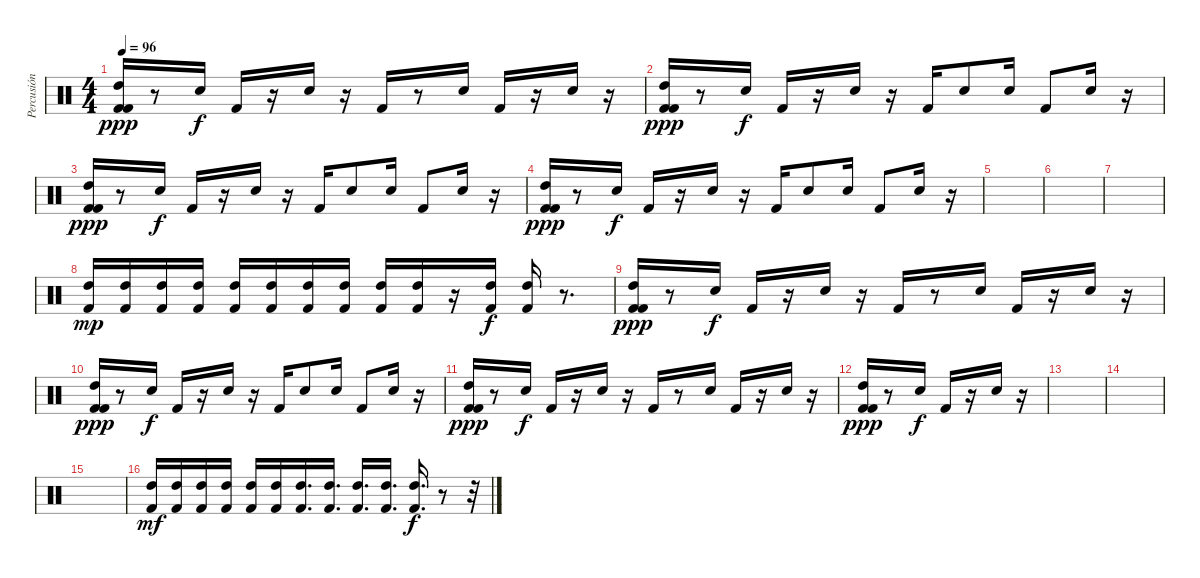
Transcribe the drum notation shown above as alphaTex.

\track ("Percusión" "Percusión") {instrument percussion}
\staff {score}
\articulation defaults
\ts (4 4)
\tempo 96
\clef neutral
\ks c
("Kick (hit) 2" "High Tom (hit)" "Kick (hit) 2").16{dy ppp} r.8 "Snare (hit) 2".16{dy f} "Kick (hit) 2".16 r.16 "Snare (hit) 2".16 r.16 "Kick (hit) 2".16 r.8 "Snare (hit) 2".16 "Kick (hit) 2".16 r.16 "Snare (hit) 2".16 r.16 |
("Kick (hit) 2" "High Tom (hit)" "Kick (hit) 2").16{dy ppp} r.8 "Snare (hit) 2".16{dy f} "Kick (hit) 2".16 r.16 "Snare (hit) 2".16 r.16 "Kick (hit) 2".16 "Snare (hit) 2".8 "Snare (hit) 2".16 "Kick (hit) 2".8 "Snare (hit) 2".16 r.16 |
("Kick (hit) 2" "High Tom (hit)" "Kick (hit) 2").16{dy ppp} r.8 "Snare (hit) 2".16{dy f} "Kick (hit) 2".16 r.16 "Snare (hit) 2".16 r.16 "Kick (hit) 2".16 "Snare (hit) 2".8 "Snare (hit) 2".16 "Kick (hit) 2".8 "Snare (hit) 2".16 r.16 |
("Kick (hit) 2" "High Tom (hit)" "Kick (hit) 2").16{dy ppp} r.8 "Snare (hit) 2".16{dy f} "Kick (hit) 2".16 r.16 "Snare (hit) 2".16 r.16 "Kick (hit) 2".16 "Snare (hit) 2".8 "Snare (hit) 2".16 "Kick (hit) 2".8 "Snare (hit) 2".16 r.16 |
|
|
|
("High Tom (hit)" "Kick (hit) 2").16{dy mp} ("High Tom (hit)" "Kick (hit) 2").16 ("High Tom (hit)" "Kick (hit) 2").16 ("High Tom (hit)" "Kick (hit) 2").16 ("High Tom (hit)" "Kick (hit) 2").16 ("High Tom (hit)" "Kick (hit) 2").16 ("High Tom (hit)" "Kick (hit) 2").16 ("High Tom (hit)" "Kick (hit) 2").16 ("High Tom (hit)" "Kick (hit) 2").16 ("High Tom (hit)" "Kick (hit) 2").16 r.16 ("High Tom (hit)" "Kick (hit) 2").16{dy f} ("High Tom (hit)" "Kick (hit) 2").16 r.8{d} |
("Kick (hit) 2" "High Tom (hit)" "Kick (hit) 2").16{dy ppp} r.8 "Snare (hit) 2".16{dy f} "Kick (hit) 2".16 r.16 "Snare (hit) 2".16 r.16 "Kick (hit) 2".16 r.8 "Snare (hit) 2".16 "Kick (hit) 2".16 r.16 "Snare (hit) 2".16 r.16 |
("Kick (hit) 2" "High Tom (hit)" "Kick (hit) 2").16{dy ppp} r.8 "Snare (hit) 2".16{dy f} "Kick (hit) 2".16 r.16 "Snare (hit) 2".16 r.16 "Kick (hit) 2".16 "Snare (hit) 2".8 "Snare (hit) 2".16 "Kick (hit) 2".8 "Snare (hit) 2".16 r.16 |
("Kick (hit) 2" "High Tom (hit)" "Kick (hit) 2").16{dy ppp} r.8 "Snare (hit) 2".16{dy f} "Kick (hit) 2".16 r.16 "Snare (hit) 2".16 r.16 "Kick (hit) 2".16 r.8 "Snare (hit) 2".16 "Kick (hit) 2".16 r.16 "Snare (hit) 2".16 r.16 |
("Kick (hit) 2" "High Tom (hit)" "Kick (hit) 2").16{dy ppp} r.8 "Snare (hit) 2".16{dy f} "Kick (hit) 2".16 r.16 "Snare (hit) 2".16 r.16 |
|
|
|
("High Tom (hit)" "Kick (hit) 2").16{dy mf} ("High Tom (hit)" "Kick (hit) 2").16 ("High Tom (hit)" "Kick (hit) 2").16 ("High Tom (hit)" "Kick (hit) 2").16 ("High Tom (hit)" "Kick (hit) 2").16 ("High Tom (hit)" "Kick (hit) 2").16 ("High Tom (hit)" "Kick (hit) 2").16{d} ("High Tom (hit)" "Kick (hit) 2").16{d} ("High Tom (hit)" "Kick (hit) 2").16{d} ("High Tom (hit)" "Kick (hit) 2").16{d} ("High Tom (hit)" "Kick (hit) 2").16{d dy f} r.8 r.32
